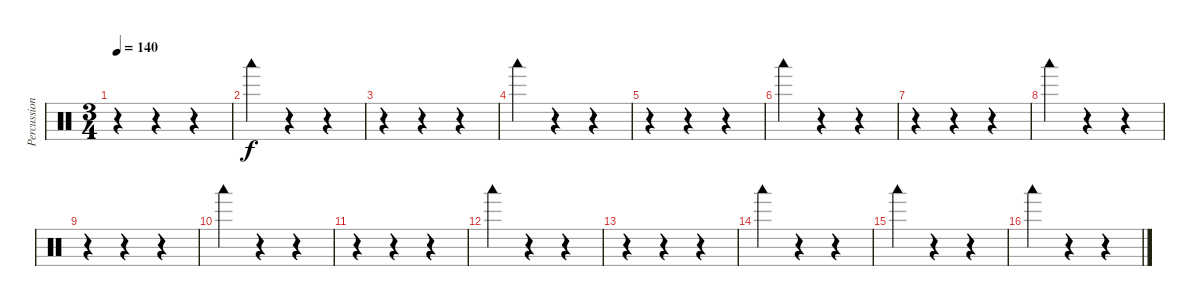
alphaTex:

\track ("Percussions" "Percussion") {instrument percussion}
\staff {score}
\articulation defaults
\ts (3 4)
\tempo 140
\clef neutral
\ks c
r.4{dy f} r.4 r.4 |
"Woodblock low (hit)".4 r.4 r.4 |
r.4 r.4 r.4 |
"Woodblock low (hit)".4 r.4 r.4 |
r.4 r.4 r.4 |
"Woodblock low (hit)".4 r.4 r.4 |
r.4 r.4 r.4 |
"Woodblock low (hit)".4 r.4 r.4 |
r.4 r.4 r.4 |
"Woodblock low (hit)".4 r.4 r.4 |
r.4 r.4 r.4 |
"Woodblock low (hit)".4 r.4 r.4 |
r.4 r.4 r.4 |
"Woodblock low (hit)".4 r.4 r.4 |
"Woodblock low (hit)".4 r.4 r.4 |
"Woodblock low (hit)".4 r.4 r.4
